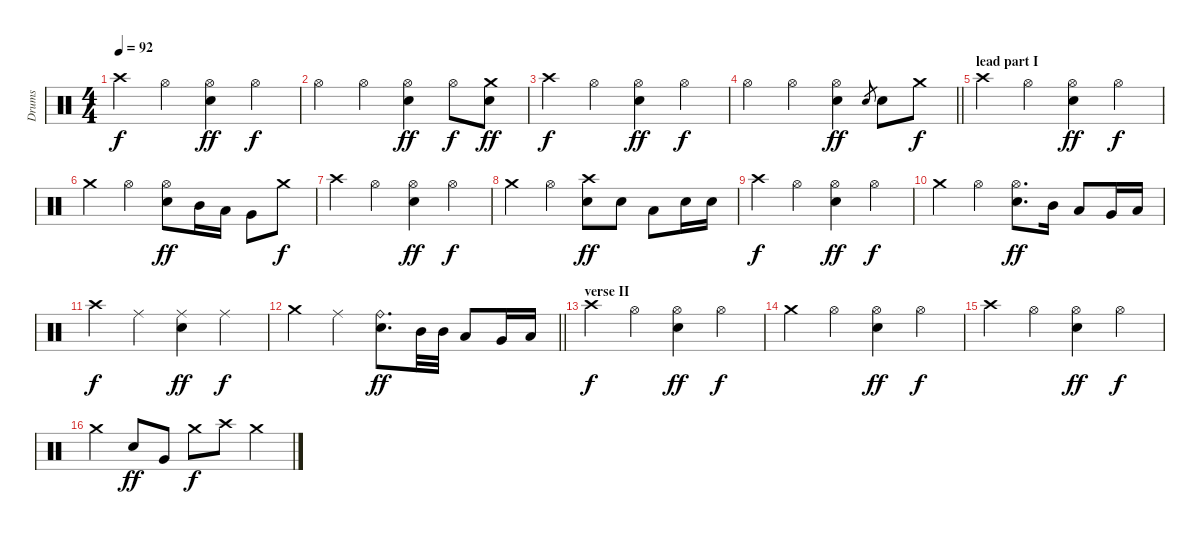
\track ("Drums" "Drums") {instrument percussion}
\staff {score}
\articulation defaults
\ts (4 4)
\tempo 92
\clef neutral
\ks c "Crash high (hit)".4{dy f} "Hi-Hat (open)".4
("Hi-Hat (open)" "Snare (hit) 2").4{dy ff} "Hi-Hat (open)".4{dy f} |
"Hi-Hat (open)".4 "Hi-Hat (open)".4 ("Hi-Hat (open)" "Snare (hit) 2").4{dy ff} "Hi-Hat (open)".8{dy f} ("Crash medium (hit)" "Snare (hit) 2").8{dy ff} |
"Crash high (hit)".4{dy f} "Hi-Hat (open)".4 ("Hi-Hat (open)" "Snare (hit) 2").4{dy ff} "Hi-Hat (open)".4{dy f} |
\barLineRight lightlight "Hi-Hat (open)".4 "Hi-Hat (open)".4
("Hi-Hat (open)" "Snare (hit) 2").4{dy ff} "Snare (hit) 2".8{gr} "Snare (hit) 2".8 "Crash medium (hit)".8{dy f} |
\section ("" "lead part I")
"Crash high (hit)".4 "Hi-Hat (open)".4 ("Hi-Hat (open)" "Snare (hit) 2").4{dy ff} "Hi-Hat (open)".4{dy f} |
"Crash medium (hit)".4 "Hi-Hat (open)".4 ("Hi-Hat (open)" "Snare (hit) 2").8{dy ff} "Mid Tom (hit)".16 "Low Tom (hit)".16 "Very Low Tom (hit)".8 "Crash medium (hit)".8{dy f} |
"Crash high (hit)".4 "Hi-Hat (open)".4 ("Hi-Hat (open)" "Snare (hit) 2").4{dy ff} "Hi-Hat (open)".4{dy f} |
"Crash medium (hit)".4 "Hi-Hat (open)".4 ("Crash high (hit)" "Snare (hit) 2").8{dy ff} "Snare (hit) 2".8 "Low Tom (hit)".8 "Snare (hit) 2".16 "Snare (hit) 2".16 |
"Crash high (hit)".4{dy f} "Hi-Hat (open)".4 ("Hi-Hat (open)" "Snare (hit) 2").4{dy ff} "Hi-Hat (open)".4{dy f} |
"Crash medium (hit)".4 "Hi-Hat (open)".4 ("Hi-Hat (open)" "Snare (hit) 2").8{d dy ff} "Mid Tom (hit)".16 "Low Tom (hit)".8 "Very Low Tom (hit)".16 "Low Floor Tom (hit)".16 |
"Crash high (hit)".4{dy f} "Ride (middle)".4 ("Ride (middle)" "Snare (hit) 2").4{dy ff} "Ride (middle)".4{dy f} |
\barLineRight lightlight "Crash medium (hit)".4 "Ride (middle)".4
("Ride (bell)" "Snare (hit) 2").8{d dy ff} "Mid Tom (hit)".32 "Mid Tom (hit)".32 "Low Tom (hit)".8 "Very Low Tom (hit)".16 "Low Floor Tom (hit)".16 |
\section ("" "verse II")
"Crash high (hit)".4{dy f} "Hi-Hat (open)".4 ("Hi-Hat (open)" "Snare (hit) 2").4{dy ff} "Hi-Hat (open)".4{dy f} |
"Crash medium (hit)".4 "Hi-Hat (open)".4 ("Hi-Hat (open)" "Snare (hit) 2").4{dy ff} "Hi-Hat (open)".4{dy f} |
"Crash high (hit)".4 "Hi-Hat (open)".4 ("Hi-Hat (open)" "Snare (hit) 2").4{dy ff} "Hi-Hat (open)".4{dy f} |
"Crash medium (hit)".4 "Snare (hit) 2".8{dy ff} "Very Low Tom (hit)".8 "Crash medium (hit)".8{dy f} "Crash high (hit)".8 "Crash medium (hit)".4
